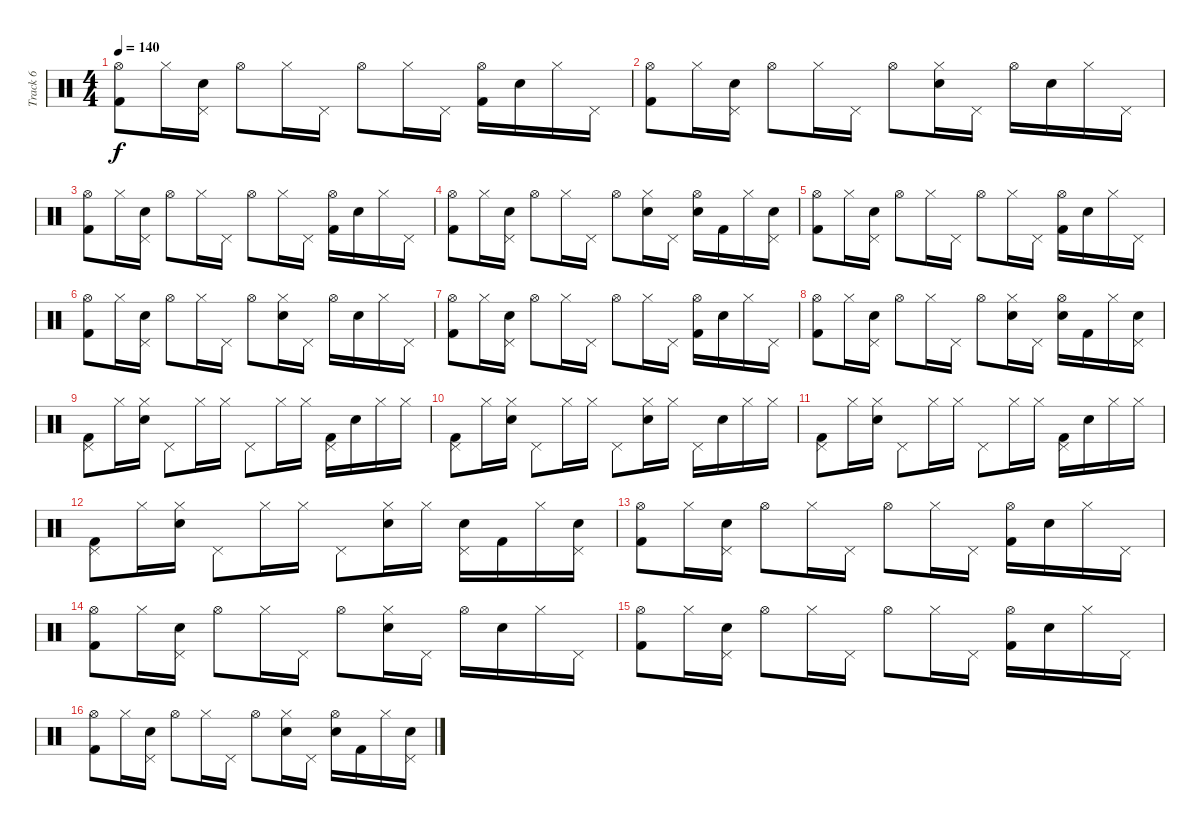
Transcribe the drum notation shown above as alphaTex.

\track ("Track 6" "Track 6") {instrument percussion}
\staff {score}
\articulation defaults
\ts (4 4)
\tempo 140
\clef neutral
\ks c
("Hi-Hat (open)" "Kick (hit) 2").8{dy f} "Hi-Hat (closed)".16 ("Pedal Hi-Hat (hit)" "Electric Snare (hit)").16 "Hi-Hat (open)".8 "Hi-Hat (closed)".16 "Pedal Hi-Hat (hit)".16 "Hi-Hat (open)".8 "Hi-Hat (closed)".16 "Pedal Hi-Hat (hit)".16 ("Hi-Hat (open)" "Kick (hit) 2").16 "Electric Snare (hit)".16 "Hi-Hat (closed)".16 "Pedal Hi-Hat (hit)".16 |
("Hi-Hat (open)" "Kick (hit) 2").8 "Hi-Hat (closed)".16 ("Pedal Hi-Hat (hit)" "Electric Snare (hit)").16 "Hi-Hat (open)".8 "Hi-Hat (closed)".16 "Pedal Hi-Hat (hit)".16 "Hi-Hat (open)".8 ("Hi-Hat (closed)" "Electric Snare (hit)").16 "Pedal Hi-Hat (hit)".16 "Hi-Hat (open)".16 "Electric Snare (hit)".16 "Hi-Hat (closed)".16 "Pedal Hi-Hat (hit)".16 |
("Hi-Hat (open)" "Kick (hit) 2").8 "Hi-Hat (closed)".16 ("Pedal Hi-Hat (hit)" "Electric Snare (hit)").16 "Hi-Hat (open)".8 "Hi-Hat (closed)".16 "Pedal Hi-Hat (hit)".16 "Hi-Hat (open)".8 "Hi-Hat (closed)".16 "Pedal Hi-Hat (hit)".16 ("Hi-Hat (open)" "Kick (hit) 2").16 "Electric Snare (hit)".16 "Hi-Hat (closed)".16 "Pedal Hi-Hat (hit)".16 |
("Hi-Hat (open)" "Kick (hit) 2").8 "Hi-Hat (closed)".16 ("Pedal Hi-Hat (hit)" "Electric Snare (hit)").16 "Hi-Hat (open)".8 "Hi-Hat (closed)".16 "Pedal Hi-Hat (hit)".16 "Hi-Hat (open)".8 ("Hi-Hat (closed)" "Electric Snare (hit)").16 "Pedal Hi-Hat (hit)".16 ("Hi-Hat (open)" "Electric Snare (hit)").16 "Kick (hit) 2".16 "Hi-Hat (closed)".16 ("Pedal Hi-Hat (hit)" "Electric Snare (hit)").16 |
("Hi-Hat (open)" "Kick (hit) 2").8 "Hi-Hat (closed)".16 ("Pedal Hi-Hat (hit)" "Electric Snare (hit)").16 "Hi-Hat (open)".8 "Hi-Hat (closed)".16 "Pedal Hi-Hat (hit)".16 "Hi-Hat (open)".8 "Hi-Hat (closed)".16 "Pedal Hi-Hat (hit)".16 ("Hi-Hat (open)" "Kick (hit) 2").16 "Electric Snare (hit)".16 "Hi-Hat (closed)".16 "Pedal Hi-Hat (hit)".16 |
("Hi-Hat (open)" "Kick (hit) 2").8 "Hi-Hat (closed)".16 ("Pedal Hi-Hat (hit)" "Electric Snare (hit)").16 "Hi-Hat (open)".8 "Hi-Hat (closed)".16 "Pedal Hi-Hat (hit)".16 "Hi-Hat (open)".8 ("Hi-Hat (closed)" "Electric Snare (hit)").16 "Pedal Hi-Hat (hit)".16 "Hi-Hat (open)".16 "Electric Snare (hit)".16 "Hi-Hat (closed)".16 "Pedal Hi-Hat (hit)".16 |
("Hi-Hat (open)" "Kick (hit) 2").8 "Hi-Hat (closed)".16 ("Pedal Hi-Hat (hit)" "Electric Snare (hit)").16 "Hi-Hat (open)".8 "Hi-Hat (closed)".16 "Pedal Hi-Hat (hit)".16 "Hi-Hat (open)".8 "Hi-Hat (closed)".16 "Pedal Hi-Hat (hit)".16 ("Hi-Hat (open)" "Kick (hit) 2").16 "Electric Snare (hit)".16 "Hi-Hat (closed)".16 "Pedal Hi-Hat (hit)".16 |
("Hi-Hat (open)" "Kick (hit) 2").8 "Hi-Hat (closed)".16 ("Pedal Hi-Hat (hit)" "Electric Snare (hit)").16 "Hi-Hat (open)".8 "Hi-Hat (closed)".16 "Pedal Hi-Hat (hit)".16 "Hi-Hat (open)".8 ("Hi-Hat (closed)" "Electric Snare (hit)").16 "Pedal Hi-Hat (hit)".16 ("Hi-Hat (open)" "Electric Snare (hit)").16 "Kick (hit) 2".16 "Hi-Hat (closed)".16 ("Pedal Hi-Hat (hit)" "Electric Snare (hit)").16 |
("Pedal Hi-Hat (hit)" "Kick (hit) 2").8 "Hi-Hat (closed)".16 ("Hi-Hat (closed)" "Electric Snare (hit)").16 "Pedal Hi-Hat (hit)".8 "Hi-Hat (closed)".16 "Hi-Hat (closed)".16 "Pedal Hi-Hat (hit)".8 "Hi-Hat (closed)".16 "Hi-Hat (closed)".16 ("Pedal Hi-Hat (hit)" "Kick (hit) 2").16 "Electric Snare (hit)".16 "Hi-Hat (closed)".16 "Hi-Hat (closed)".16 |
("Pedal Hi-Hat (hit)" "Kick (hit) 2").8 "Hi-Hat (closed)".16 ("Hi-Hat (closed)" "Electric Snare (hit)").16 "Pedal Hi-Hat (hit)".8 "Hi-Hat (closed)".16 "Hi-Hat (closed)".16 "Pedal Hi-Hat (hit)".8 ("Hi-Hat (closed)" "Electric Snare (hit)").16 "Hi-Hat (closed)".16 "Pedal Hi-Hat (hit)".16 "Electric Snare (hit)".16 "Hi-Hat (closed)".16 "Hi-Hat (closed)".16 |
("Pedal Hi-Hat (hit)" "Kick (hit) 2").8 "Hi-Hat (closed)".16 ("Hi-Hat (closed)" "Electric Snare (hit)").16 "Pedal Hi-Hat (hit)".8 "Hi-Hat (closed)".16 "Hi-Hat (closed)".16 "Pedal Hi-Hat (hit)".8 "Hi-Hat (closed)".16 "Hi-Hat (closed)".16 ("Pedal Hi-Hat (hit)" "Kick (hit) 2").16 "Electric Snare (hit)".16 "Hi-Hat (closed)".16 "Hi-Hat (closed)".16 |
("Pedal Hi-Hat (hit)" "Kick (hit) 2").8 "Hi-Hat (closed)".16 ("Hi-Hat (closed)" "Electric Snare (hit)").16 "Pedal Hi-Hat (hit)".8 "Hi-Hat (closed)".16 "Hi-Hat (closed)".16 "Pedal Hi-Hat (hit)".8 ("Hi-Hat (closed)" "Electric Snare (hit)").16 "Hi-Hat (closed)".16 ("Pedal Hi-Hat (hit)" "Electric Snare (hit)").16 "Kick (hit) 2".16 "Hi-Hat (closed)".16 ("Pedal Hi-Hat (hit)" "Electric Snare (hit)").16 |
("Hi-Hat (open)" "Kick (hit) 2").8 "Hi-Hat (closed)".16 ("Pedal Hi-Hat (hit)" "Electric Snare (hit)").16 "Hi-Hat (open)".8 "Hi-Hat (closed)".16 "Pedal Hi-Hat (hit)".16 "Hi-Hat (open)".8 "Hi-Hat (closed)".16 "Pedal Hi-Hat (hit)".16 ("Hi-Hat (open)" "Kick (hit) 2").16 "Electric Snare (hit)".16 "Hi-Hat (closed)".16 "Pedal Hi-Hat (hit)".16 |
("Hi-Hat (open)" "Kick (hit) 2").8 "Hi-Hat (closed)".16 ("Pedal Hi-Hat (hit)" "Electric Snare (hit)").16 "Hi-Hat (open)".8 "Hi-Hat (closed)".16 "Pedal Hi-Hat (hit)".16 "Hi-Hat (open)".8 ("Hi-Hat (closed)" "Electric Snare (hit)").16 "Pedal Hi-Hat (hit)".16 "Hi-Hat (open)".16 "Electric Snare (hit)".16 "Hi-Hat (closed)".16 "Pedal Hi-Hat (hit)".16 |
("Hi-Hat (open)" "Kick (hit) 2").8 "Hi-Hat (closed)".16 ("Pedal Hi-Hat (hit)" "Electric Snare (hit)").16 "Hi-Hat (open)".8 "Hi-Hat (closed)".16 "Pedal Hi-Hat (hit)".16 "Hi-Hat (open)".8 "Hi-Hat (closed)".16 "Pedal Hi-Hat (hit)".16 ("Hi-Hat (open)" "Kick (hit) 2").16 "Electric Snare (hit)".16 "Hi-Hat (closed)".16 "Pedal Hi-Hat (hit)".16 |
("Hi-Hat (open)" "Kick (hit) 2").8 "Hi-Hat (closed)".16 ("Pedal Hi-Hat (hit)" "Electric Snare (hit)").16 "Hi-Hat (open)".8 "Hi-Hat (closed)".16 "Pedal Hi-Hat (hit)".16 "Hi-Hat (open)".8 ("Hi-Hat (closed)" "Electric Snare (hit)").16 "Pedal Hi-Hat (hit)".16 ("Hi-Hat (open)" "Electric Snare (hit)").16 "Kick (hit) 2".16 "Hi-Hat (closed)".16 ("Pedal Hi-Hat (hit)" "Electric Snare (hit)").16
